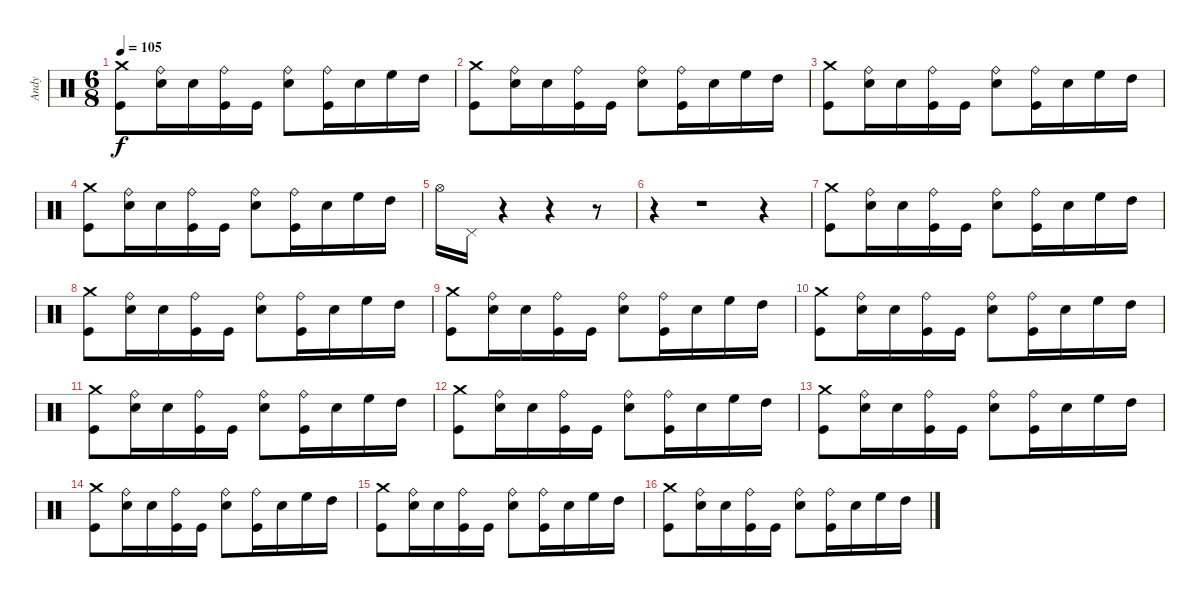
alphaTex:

\track ("Andy" "Andy") {instrument percussion}
\staff {score}
\articulation defaults
\ts (6 8)
\tempo 105
\clef neutral
\ks c
("Kick (hit)" "Crash medium (hit)").8{dy f} ("Snare (hit) 2" "Ride (bell)").16 "Snare (hit) 2".16 ("Kick (hit)" "Ride (bell)").16 "Kick (hit)".16 ("Ride (bell)" "Snare (hit) 2").8 ("Kick (hit)" "Ride (bell)").16 "Snare (hit) 2".16 "High Floor Tom (hit)".16 "High Tom (hit)".16 |
("Kick (hit)" "Crash medium (hit)").8 ("Snare (hit) 2" "Ride (bell)").16 "Snare (hit) 2".16 ("Kick (hit)" "Ride (bell)").16 "Kick (hit)".16 ("Ride (bell)" "Snare (hit) 2").8 ("Kick (hit)" "Ride (bell)").16 "Snare (hit) 2".16 "High Floor Tom (hit)".16 "High Tom (hit)".16 |
("Kick (hit)" "Crash medium (hit)").8 ("Snare (hit) 2" "Ride (bell)").16 "Snare (hit) 2".16 ("Kick (hit)" "Ride (bell)").16 "Kick (hit)".16 ("Ride (bell)" "Snare (hit) 2").8 ("Kick (hit)" "Ride (bell)").16 "Snare (hit) 2".16 "High Floor Tom (hit)".16 "High Tom (hit)".16 |
("Kick (hit)" "Crash medium (hit)").8 ("Snare (hit) 2" "Ride (bell)").16 "Snare (hit) 2".16 ("Kick (hit)" "Ride (bell)").16 "Kick (hit)".16 ("Ride (bell)" "Snare (hit) 2").8 ("Kick (hit)" "Ride (bell)").16 "Snare (hit) 2".16 "High Floor Tom (hit)".16 "High Tom (hit)".16 |
"Hi-Hat (open)".16 "Pedal Hi-Hat (hit)".16 r.4 r.4 r.8 |
r.4 r.1 r.4 |
("Kick (hit)" "Crash medium (hit)").8 ("Snare (hit) 2" "Ride (bell)").16 "Snare (hit) 2".16 ("Kick (hit)" "Ride (bell)").16 "Kick (hit)".16 ("Ride (bell)" "Snare (hit) 2").8 ("Kick (hit)" "Ride (bell)").16 "Snare (hit) 2".16 "High Floor Tom (hit)".16 "High Tom (hit)".16 |
("Kick (hit)" "Crash medium (hit)").8 ("Snare (hit) 2" "Ride (bell)").16 "Snare (hit) 2".16 ("Kick (hit)" "Ride (bell)").16 "Kick (hit)".16 ("Ride (bell)" "Snare (hit) 2").8 ("Kick (hit)" "Ride (bell)").16 "Snare (hit) 2".16 "High Floor Tom (hit)".16 "High Tom (hit)".16 |
("Kick (hit)" "Crash medium (hit)").8 ("Snare (hit) 2" "Ride (bell)").16 "Snare (hit) 2".16 ("Kick (hit)" "Ride (bell)").16 "Kick (hit)".16 ("Ride (bell)" "Snare (hit) 2").8 ("Kick (hit)" "Ride (bell)").16 "Snare (hit) 2".16 "High Floor Tom (hit)".16 "High Tom (hit)".16 |
("Kick (hit)" "Crash medium (hit)").8 ("Snare (hit) 2" "Ride (bell)").16 "Snare (hit) 2".16 ("Kick (hit)" "Ride (bell)").16 "Kick (hit)".16 ("Ride (bell)" "Snare (hit) 2").8 ("Kick (hit)" "Ride (bell)").16 "Snare (hit) 2".16 "High Floor Tom (hit)".16 "High Tom (hit)".16 |
("Kick (hit)" "Crash medium (hit)").8 ("Snare (hit) 2" "Ride (bell)").16 "Snare (hit) 2".16 ("Kick (hit)" "Ride (bell)").16 "Kick (hit)".16 ("Ride (bell)" "Snare (hit) 2").8 ("Kick (hit)" "Ride (bell)").16 "Snare (hit) 2".16 "High Floor Tom (hit)".16 "High Tom (hit)".16 |
("Kick (hit)" "Crash medium (hit)").8 ("Snare (hit) 2" "Ride (bell)").16 "Snare (hit) 2".16 ("Kick (hit)" "Ride (bell)").16 "Kick (hit)".16 ("Ride (bell)" "Snare (hit) 2").8 ("Kick (hit)" "Ride (bell)").16 "Snare (hit) 2".16 "High Floor Tom (hit)".16 "High Tom (hit)".16 |
("Kick (hit)" "Crash medium (hit)").8 ("Snare (hit) 2" "Ride (bell)").16 "Snare (hit) 2".16 ("Kick (hit)" "Ride (bell)").16 "Kick (hit)".16 ("Ride (bell)" "Snare (hit) 2").8 ("Kick (hit)" "Ride (bell)").16 "Snare (hit) 2".16 "High Floor Tom (hit)".16 "High Tom (hit)".16 |
("Kick (hit)" "Crash medium (hit)").8 ("Snare (hit) 2" "Ride (bell)").16 "Snare (hit) 2".16 ("Kick (hit)" "Ride (bell)").16 "Kick (hit)".16 ("Ride (bell)" "Snare (hit) 2").8 ("Kick (hit)" "Ride (bell)").16 "Snare (hit) 2".16 "High Floor Tom (hit)".16 "High Tom (hit)".16 |
("Kick (hit)" "Crash medium (hit)").8 ("Snare (hit) 2" "Ride (bell)").16 "Snare (hit) 2".16 ("Kick (hit)" "Ride (bell)").16 "Kick (hit)".16 ("Ride (bell)" "Snare (hit) 2").8 ("Kick (hit)" "Ride (bell)").16 "Snare (hit) 2".16 "High Floor Tom (hit)".16 "High Tom (hit)".16 |
("Kick (hit)" "Crash medium (hit)").8 ("Snare (hit) 2" "Ride (bell)").16 "Snare (hit) 2".16 ("Kick (hit)" "Ride (bell)").16 "Kick (hit)".16 ("Ride (bell)" "Snare (hit) 2").8 ("Kick (hit)" "Ride (bell)").16 "Snare (hit) 2".16 "High Floor Tom (hit)".16 "High Tom (hit)".16
